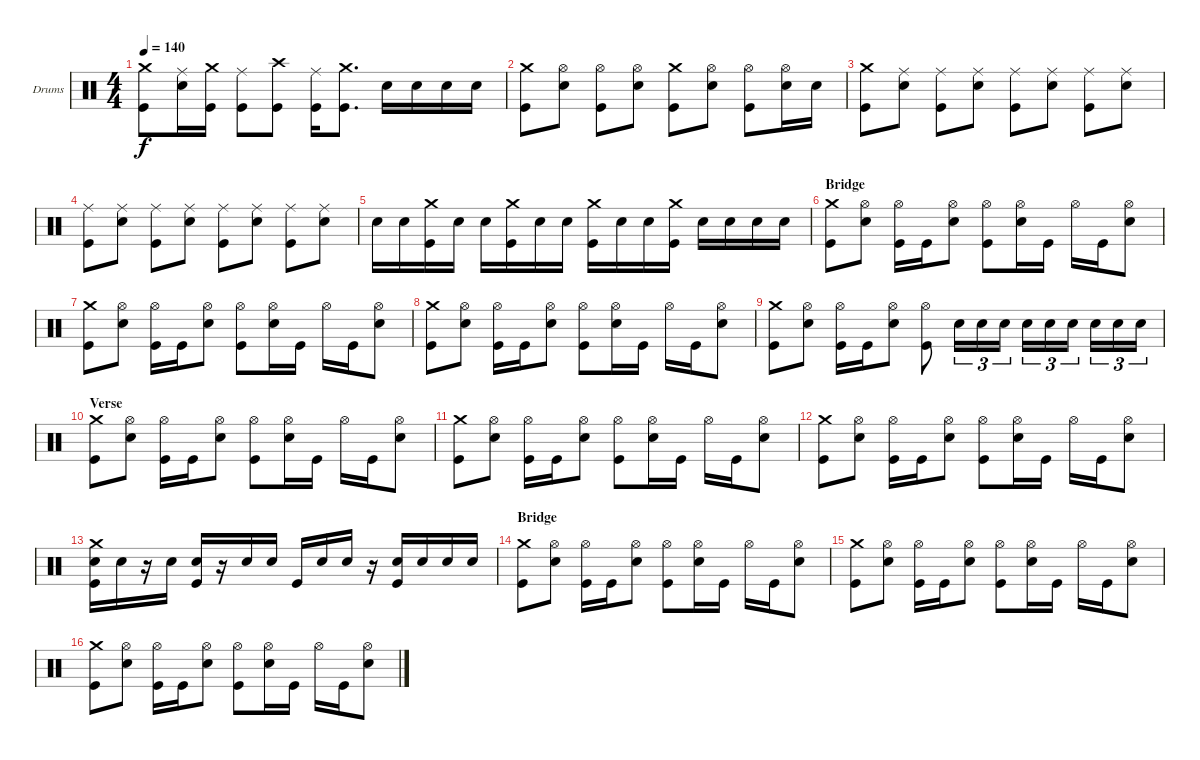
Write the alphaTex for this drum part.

\defaultSystemsLayout 4
\bracketExtendMode nobrackets
\firstSystemTrackNameOrientation horizontal
\otherSystemsTrackNameOrientation horizontal
\track ("Phil Taylor" "Drums") {instrument percussion}
\staff {score}
\articulation defaults
\ts (4 4)
\tempo 140
\clef neutral
\ks c
("Crash medium (hit)" "Kick (hit)").8{dy f} ("Ride (middle)" "Snare (hit) 2").16 ("Crash medium (hit)" "Kick (hit)").16 ("Ride (middle)" "Kick (hit)").8 ("Crash high (hit)" "Kick (hit)").8 ("Ride (middle)" "Kick (hit)").16 ("Crash medium (hit)" "Kick (hit)").8{d} "Snare (hit) 2".16 "Snare (hit) 2".16 "Snare (hit) 2".16 "Snare (hit) 2".16 |
("Crash medium (hit)" "Kick (hit)").8 ("Hi-Hat (open)" "Snare (hit) 2").8 ("Hi-Hat (open)" "Kick (hit)").8 ("Hi-Hat (open)" "Snare (hit) 2").8 ("Crash medium (hit)" "Kick (hit)").8 ("Hi-Hat (open)" "Snare (hit) 2").8 ("Hi-Hat (open)" "Kick (hit)").8 ("Hi-Hat (open)" "Snare (hit) 2").16 "Snare (hit) 2".16 |
("Crash medium (hit)" "Kick (hit)").8 ("Ride (middle)" "Snare (hit) 2").8 ("Ride (middle)" "Kick (hit)").8 ("Ride (middle)" "Snare (hit) 2").8 ("Ride (middle)" "Kick (hit)").8 ("Ride (middle)" "Snare (hit) 2").8 ("Ride (middle)" "Kick (hit)").8 ("Ride (middle)" "Snare (hit) 2").8 |
("Ride (middle)" "Kick (hit)").8 ("Ride (middle)" "Snare (hit) 2").8 ("Ride (middle)" "Kick (hit)").8 ("Ride (middle)" "Snare (hit) 2").8 ("Ride (middle)" "Kick (hit)").8 ("Ride (middle)" "Snare (hit) 2").8 ("Ride (middle)" "Kick (hit)").8 ("Ride (middle)" "Snare (hit) 2").8 |
"Snare (hit) 2".16 "Snare (hit) 2".16 ("Crash medium (hit)" "Kick (hit)").16 "Snare (hit) 2".16 "Snare (hit) 2".16 ("Crash medium (hit)" "Kick (hit)").16 "Snare (hit) 2".16 "Snare (hit) 2".16 ("Crash medium (hit)" "Kick (hit)").16 "Snare (hit) 2".16 "Snare (hit) 2".16 ("Crash medium (hit)" "Kick (hit)").16 "Snare (hit) 2".16 "Snare (hit) 2".16 "Snare (hit) 2".16 "Snare (hit) 2".16 |
\section ("" "Bridge")
("Crash medium (hit)" "Kick (hit)").8 ("Hi-Hat (open)" "Snare (hit) 2").8 ("Hi-Hat (open)" "Kick (hit)").16 "Kick (hit)".16 ("Hi-Hat (open)" "Snare (hit) 2").8 ("Hi-Hat (open)" "Kick (hit)").8 ("Hi-Hat (open)" "Snare (hit) 2").16 "Kick (hit)".16 "Hi-Hat (open)".16 "Kick (hit)".16 ("Hi-Hat (open)" "Snare (hit) 2").8 |
("Crash medium (hit)" "Kick (hit)").8 ("Hi-Hat (open)" "Snare (hit) 2").8 ("Hi-Hat (open)" "Kick (hit)").16 "Kick (hit)".16 ("Hi-Hat (open)" "Snare (hit) 2").8 ("Hi-Hat (open)" "Kick (hit)").8 ("Hi-Hat (open)" "Snare (hit) 2").16 "Kick (hit)".16 "Hi-Hat (open)".16 "Kick (hit)".16 ("Hi-Hat (open)" "Snare (hit) 2").8 |
("Crash medium (hit)" "Kick (hit)").8 ("Hi-Hat (open)" "Snare (hit) 2").8 ("Hi-Hat (open)" "Kick (hit)").16 "Kick (hit)".16 ("Hi-Hat (open)" "Snare (hit) 2").8 ("Hi-Hat (open)" "Kick (hit)").8 ("Hi-Hat (open)" "Snare (hit) 2").16 "Kick (hit)".16 "Hi-Hat (open)".16 "Kick (hit)".16 ("Hi-Hat (open)" "Snare (hit) 2").8 |
("Crash medium (hit)" "Kick (hit)").8 ("Hi-Hat (open)" "Snare (hit) 2").8 ("Hi-Hat (open)" "Kick (hit)").16 "Kick (hit)".16 ("Hi-Hat (open)" "Snare (hit) 2").8 ("Hi-Hat (open)" "Kick (hit)").8 "Snare (hit) 2".16{tu (3 2)} "Snare (hit) 2".16{tu (3 2)} "Snare (hit) 2".16{tu (3 2)} "Snare (hit) 2".16{tu (3 2)} "Snare (hit) 2".16{tu (3 2)} "Snare (hit) 2".16{tu (3 2)} "Snare (hit) 2".16{tu (3 2)} "Snare (hit) 2".16{tu (3 2)} "Snare (hit) 2".16{tu (3 2)} |
\section ("" "Verse")
("Crash medium (hit)" "Kick (hit)").8 ("Hi-Hat (open)" "Snare (hit) 2").8 ("Hi-Hat (open)" "Kick (hit)").16 "Kick (hit)".16 ("Hi-Hat (open)" "Snare (hit) 2").8 ("Hi-Hat (open)" "Kick (hit)").8 ("Hi-Hat (open)" "Snare (hit) 2").16 "Kick (hit)".16 "Hi-Hat (open)".16 "Kick (hit)".16 ("Hi-Hat (open)" "Snare (hit) 2").8 |
("Crash medium (hit)" "Kick (hit)").8 ("Hi-Hat (open)" "Snare (hit) 2").8 ("Hi-Hat (open)" "Kick (hit)").16 "Kick (hit)".16 ("Hi-Hat (open)" "Snare (hit) 2").8 ("Hi-Hat (open)" "Kick (hit)").8 ("Hi-Hat (open)" "Snare (hit) 2").16 "Kick (hit)".16 "Hi-Hat (open)".16 "Kick (hit)".16 ("Hi-Hat (open)" "Snare (hit) 2").8 |
("Crash medium (hit)" "Kick (hit)").8 ("Hi-Hat (open)" "Snare (hit) 2").8 ("Hi-Hat (open)" "Kick (hit)").16 "Kick (hit)".16 ("Hi-Hat (open)" "Snare (hit) 2").8 ("Hi-Hat (open)" "Kick (hit)").8 ("Hi-Hat (open)" "Snare (hit) 2").16 "Kick (hit)".16 "Hi-Hat (open)".16 "Kick (hit)".16 ("Hi-Hat (open)" "Snare (hit) 2").8 |
("Crash medium (hit)" "Snare (hit) 2" "Kick (hit)").16 "Snare (hit) 2".16 r.16 "Snare (hit) 2".16 ("Snare (hit) 2" "Kick (hit)").16 r.16 "Snare (hit) 2".16 "Snare (hit) 2".16 "Kick (hit)".16 "Snare (hit) 2".16 "Snare (hit) 2".16 r.16 ("Snare (hit) 2" "Kick (hit)").16 "Snare (hit) 2".16 "Snare (hit) 2".16 "Snare (hit) 2".16 |
\section ("" "Bridge")
("Crash medium (hit)" "Kick (hit)").8 ("Hi-Hat (open)" "Snare (hit) 2").8 ("Hi-Hat (open)" "Kick (hit)").16 "Kick (hit)".16 ("Hi-Hat (open)" "Snare (hit) 2").8 ("Hi-Hat (open)" "Kick (hit)").8 ("Hi-Hat (open)" "Snare (hit) 2").16 "Kick (hit)".16 "Hi-Hat (open)".16 "Kick (hit)".16 ("Hi-Hat (open)" "Snare (hit) 2").8 |
("Crash medium (hit)" "Kick (hit)").8 ("Hi-Hat (open)" "Snare (hit) 2").8 ("Hi-Hat (open)" "Kick (hit)").16 "Kick (hit)".16 ("Hi-Hat (open)" "Snare (hit) 2").8 ("Hi-Hat (open)" "Kick (hit)").8 ("Hi-Hat (open)" "Snare (hit) 2").16 "Kick (hit)".16 "Hi-Hat (open)".16 "Kick (hit)".16 ("Hi-Hat (open)" "Snare (hit) 2").8 |
("Crash medium (hit)" "Kick (hit)").8 ("Hi-Hat (open)" "Snare (hit) 2").8 ("Hi-Hat (open)" "Kick (hit)").16 "Kick (hit)".16 ("Hi-Hat (open)" "Snare (hit) 2").8 ("Hi-Hat (open)" "Kick (hit)").8 ("Hi-Hat (open)" "Snare (hit) 2").16 "Kick (hit)".16 "Hi-Hat (open)".16 "Kick (hit)".16 ("Hi-Hat (open)" "Snare (hit) 2").8
